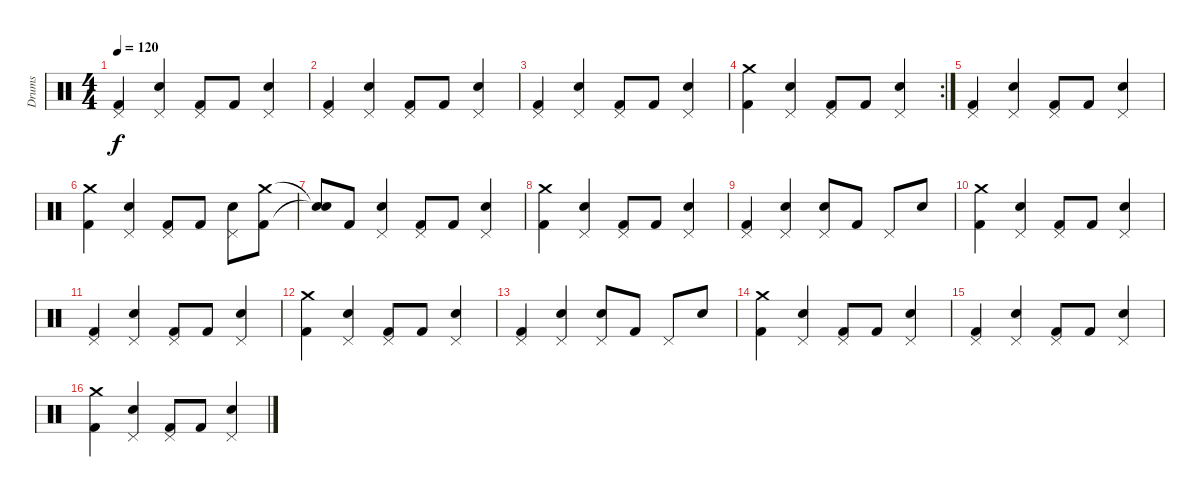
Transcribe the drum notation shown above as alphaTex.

\track ("Drums" "Drums") {instrument percussion}
\staff {score}
\articulation defaults
\ts (4 4)
\tempo 120
\clef neutral
\ks c
("Pedal Hi-Hat (hit)" "Kick (hit) 2").4{dy f} ("Pedal Hi-Hat (hit)" "Snare (hit) 2").4 ("Pedal Hi-Hat (hit)" "Kick (hit) 2").8 "Kick (hit) 2".8 ("Pedal Hi-Hat (hit)" "Snare (hit) 2").4 |
("Pedal Hi-Hat (hit)" "Kick (hit) 2").4 ("Pedal Hi-Hat (hit)" "Snare (hit) 2").4 ("Pedal Hi-Hat (hit)" "Kick (hit) 2").8 "Kick (hit) 2".8 ("Pedal Hi-Hat (hit)" "Snare (hit) 2").4 |
("Pedal Hi-Hat (hit)" "Kick (hit) 2").4 ("Pedal Hi-Hat (hit)" "Snare (hit) 2").4 ("Pedal Hi-Hat (hit)" "Kick (hit) 2").8 "Kick (hit) 2".8 ("Pedal Hi-Hat (hit)" "Snare (hit) 2").4 |
\rc 2
("Kick (hit) 2" "Crash medium (hit)").4 ("Pedal Hi-Hat (hit)" "Snare (hit) 2").4 ("Pedal Hi-Hat (hit)" "Kick (hit) 2").8 "Kick (hit) 2".8 ("Pedal Hi-Hat (hit)" "Snare (hit) 2").4 |
("Pedal Hi-Hat (hit)" "Kick (hit) 2").4 ("Pedal Hi-Hat (hit)" "Snare (hit) 2").4 ("Pedal Hi-Hat (hit)" "Kick (hit) 2").8 "Kick (hit) 2".8 ("Pedal Hi-Hat (hit)" "Snare (hit) 2").4 |
("Kick (hit) 2" "Crash medium (hit)").4 ("Pedal Hi-Hat (hit)" "Snare (hit) 2").4 ("Pedal Hi-Hat (hit)" "Kick (hit) 2").8 "Kick (hit) 2".8 ("Pedal Hi-Hat (hit)" "Snare (hit) 2").8 ("Kick (hit) 2" "Crash medium (hit)").8 |
("Snare (hit)"{t} "Snare (hit)"{t}).8 "Kick (hit) 2".8 ("Pedal Hi-Hat (hit)" "Snare (hit) 2").4 ("Pedal Hi-Hat (hit)" "Kick (hit) 2").8 "Kick (hit) 2".8 ("Pedal Hi-Hat (hit)" "Snare (hit) 2").4 |
("Kick (hit) 2" "Crash medium (hit)").4 ("Snare (hit) 2" "Pedal Hi-Hat (hit)").4 ("Pedal Hi-Hat (hit)" "Kick (hit) 2").8 "Kick (hit) 2".8 ("Pedal Hi-Hat (hit)" "Snare (hit) 2").4 |
("Kick (hit) 2" "Pedal Hi-Hat (hit)").4 ("Snare (hit) 2" "Pedal Hi-Hat (hit)").4 ("Pedal Hi-Hat (hit)" "Snare (hit) 2").8 "Kick (hit) 2".8 "Pedal Hi-Hat (hit)".8 "Snare (hit) 2".8 |
("Kick (hit) 2" "Crash medium (hit)").4 ("Pedal Hi-Hat (hit)" "Snare (hit) 2").4 ("Pedal Hi-Hat (hit)" "Kick (hit) 2").8 "Kick (hit) 2".8 ("Snare (hit) 2" "Pedal Hi-Hat (hit)").4 |
("Pedal Hi-Hat (hit)" "Kick (hit) 2").4 ("Pedal Hi-Hat (hit)" "Snare (hit) 2").4 ("Pedal Hi-Hat (hit)" "Kick (hit) 2").8 "Kick (hit) 2".8 ("Pedal Hi-Hat (hit)" "Snare (hit) 2").4 |
("Kick (hit) 2" "Crash medium (hit)").4 ("Snare (hit) 2" "Pedal Hi-Hat (hit)").4 ("Pedal Hi-Hat (hit)" "Kick (hit) 2").8 "Kick (hit) 2".8 ("Snare (hit) 2" "Pedal Hi-Hat (hit)").4 |
("Kick (hit) 2" "Pedal Hi-Hat (hit)").4 ("Snare (hit) 2" "Pedal Hi-Hat (hit)").4 ("Snare (hit) 2" "Pedal Hi-Hat (hit)").8 "Kick (hit) 2".8 "Pedal Hi-Hat (hit)".8 "Snare (hit) 2".8 |
("Kick (hit) 2" "Crash medium (hit)").4 ("Snare (hit) 2" "Pedal Hi-Hat (hit)").4 ("Kick (hit) 2" "Pedal Hi-Hat (hit)").8 "Kick (hit) 2".8 ("Snare (hit) 2" "Pedal Hi-Hat (hit)").4 |
("Kick (hit) 2" "Pedal Hi-Hat (hit)").4 ("Snare (hit) 2" "Pedal Hi-Hat (hit)").4 ("Kick (hit) 2" "Pedal Hi-Hat (hit)").8 "Kick (hit) 2".8 ("Snare (hit) 2" "Pedal Hi-Hat (hit)").4 |
("Kick (hit) 2" "Crash medium (hit)").4 ("Snare (hit) 2" "Pedal Hi-Hat (hit)").4 ("Kick (hit) 2" "Pedal Hi-Hat (hit)").8 "Kick (hit) 2".8 ("Snare (hit) 2" "Pedal Hi-Hat (hit)").4
